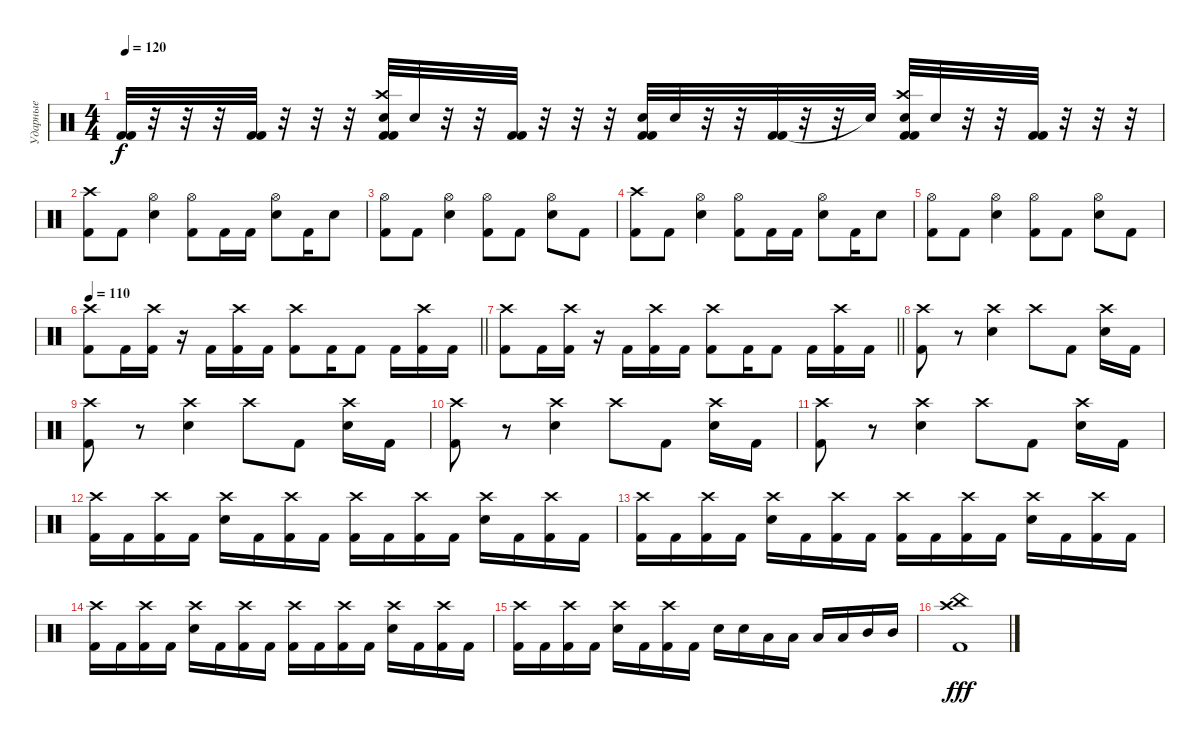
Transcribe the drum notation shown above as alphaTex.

\track ("Ударные" "Ударные") {instrument percussion}
\staff {score}
\articulation defaults
\ts (4 4)
\tempo 120
\clef neutral
\ks c
("Kick (hit) 2" "Kick (hit) 2").32{dy f} r.32 r.32 r.32 ("Kick (hit) 2" "Kick (hit) 2").32 r.32 r.32 r.32 ("Crash high (hit)" "Snare (hit) 2" "Kick (hit) 2" "Kick (hit) 2").32 "Snare (hit) 2".32 r.32 r.32 ("Kick (hit) 2" "Kick (hit) 2").32 r.32 r.32 r.32 ("Snare (hit) 2" "Kick (hit) 2" "Kick (hit) 2").32 "Snare (hit) 2".32 r.32 r.32 ("Kick (hit) 2" "Kick (hit) 2").32 r.32 r.32 "Snare (hit)"{t}.32 ("Crash high (hit)" "Snare (hit) 2" "Kick (hit) 2" "Kick (hit) 2").32 "Snare (hit) 2".32 r.32 r.32 ("Kick (hit) 2" "Kick (hit) 2").32 r.32 r.32 r.32 |
("Crash high (hit)" "Kick (hit) 2").8 "Kick (hit) 2".8 ("Hi-Hat (open)" "Electric Snare (hit)").4 ("Hi-Hat (open)" "Kick (hit) 2").8 "Kick (hit) 2".16 "Kick (hit) 2".16 ("Hi-Hat (open)" "Electric Snare (hit)").8 "Kick (hit) 2".16 "Electric Snare (hit)".8 |
("Hi-Hat (open)" "Kick (hit) 2").8 "Kick (hit) 2".8 ("Hi-Hat (open)" "Electric Snare (hit)").4 ("Hi-Hat (open)" "Kick (hit) 2").8 "Kick (hit) 2".8 ("Hi-Hat (open)" "Electric Snare (hit)").8 "Kick (hit) 2".8 |
("Crash high (hit)" "Kick (hit) 2").8 "Kick (hit) 2".8 ("Hi-Hat (open)" "Electric Snare (hit)").4 ("Hi-Hat (open)" "Kick (hit) 2").8 "Kick (hit) 2".16 "Kick (hit) 2".16 ("Hi-Hat (open)" "Electric Snare (hit)").8 "Kick (hit) 2".16 "Electric Snare (hit)".8 |
("Hi-Hat (open)" "Kick (hit) 2").8 "Kick (hit) 2".8 ("Hi-Hat (open)" "Electric Snare (hit)").4 ("Hi-Hat (open)" "Kick (hit) 2").8 "Kick (hit) 2".8 ("Hi-Hat (open)" "Electric Snare (hit)").8 "Kick (hit) 2".8 |
\tempo 110
\barLineRight lightlight
("Kick (hit) 2" "Crash high (hit)").8 "Kick (hit) 2".16 ("Kick (hit) 2" "Crash high (hit)").16 r.16 "Kick (hit) 2".16 ("Kick (hit) 2" "Crash high (hit)").16 "Kick (hit) 2".16 ("Kick (hit) 2" "Crash high (hit)").8 "Kick (hit) 2".16 "Kick (hit) 2".8 "Kick (hit) 2".16 ("Kick (hit) 2" "Crash high (hit)").16 "Kick (hit) 2".16 |
\barLineRight lightlight
("Kick (hit) 2" "Crash high (hit)").8 "Kick (hit) 2".16 ("Kick (hit) 2" "Crash high (hit)").16 r.16 "Kick (hit) 2".16 ("Kick (hit) 2" "Crash high (hit)").16 "Kick (hit) 2".16 ("Kick (hit) 2" "Crash high (hit)").8 "Kick (hit) 2".16 "Kick (hit) 2".8 "Kick (hit) 2".16 ("Kick (hit) 2" "Crash high (hit)").16 "Kick (hit) 2".16 |
("Crash high (hit)" "Kick (hit) 2").8 r.8 ("Crash high (hit)" "Electric Snare (hit)").4 "Crash high (hit)".8 "Kick (hit) 2".8 ("Crash high (hit)" "Electric Snare (hit)").16 "Kick (hit) 2".16 |
("Crash high (hit)" "Kick (hit) 2").8 r.8 ("Crash high (hit)" "Electric Snare (hit)").4 "Crash high (hit)".8 "Kick (hit) 2".8 ("Crash high (hit)" "Electric Snare (hit)").16 "Kick (hit) 2".16 |
("Crash high (hit)" "Kick (hit) 2").8 r.8 ("Crash high (hit)" "Electric Snare (hit)").4 "Crash high (hit)".8 "Kick (hit) 2".8 ("Crash high (hit)" "Electric Snare (hit)").16 "Kick (hit) 2".16 |
("Crash high (hit)" "Kick (hit) 2").8 r.8 ("Crash high (hit)" "Electric Snare (hit)").4 "Crash high (hit)".8 "Kick (hit) 2".8 ("Crash high (hit)" "Electric Snare (hit)").16 "Kick (hit) 2".16 |
("Crash high (hit)" "Kick (hit) 2").16 "Kick (hit) 2".16 ("Crash high (hit)" "Kick (hit) 2").16 "Kick (hit) 2".16 ("Crash high (hit)" "Electric Snare (hit)").16 "Kick (hit) 2".16 ("Crash high (hit)" "Kick (hit) 2").16 "Kick (hit) 2".16 ("Crash high (hit)" "Kick (hit) 2").16 "Kick (hit) 2".16 ("Crash high (hit)" "Kick (hit) 2").16 "Kick (hit) 2".16 ("Crash high (hit)" "Electric Snare (hit)").16 "Kick (hit) 2".16 ("Crash high (hit)" "Kick (hit) 2").16 "Kick (hit) 2".16 |
("Crash high (hit)" "Kick (hit) 2").16 "Kick (hit) 2".16 ("Crash high (hit)" "Kick (hit) 2").16 "Kick (hit) 2".16 ("Crash high (hit)" "Electric Snare (hit)").16 "Kick (hit) 2".16 ("Crash high (hit)" "Kick (hit) 2").16 "Kick (hit) 2".16 ("Crash high (hit)" "Kick (hit) 2").16 "Kick (hit) 2".16 ("Crash high (hit)" "Kick (hit) 2").16 "Kick (hit) 2".16 ("Crash high (hit)" "Electric Snare (hit)").16 "Kick (hit) 2".16 ("Crash high (hit)" "Kick (hit) 2").16 "Kick (hit) 2".16 |
("Crash high (hit)" "Kick (hit) 2").16 "Kick (hit) 2".16 ("Crash high (hit)" "Kick (hit) 2").16 "Kick (hit) 2".16 ("Crash high (hit)" "Electric Snare (hit)").16 "Kick (hit) 2".16 ("Crash high (hit)" "Kick (hit) 2").16 "Kick (hit) 2".16 ("Crash high (hit)" "Kick (hit) 2").16 "Kick (hit) 2".16 ("Crash high (hit)" "Kick (hit) 2").16 "Kick (hit) 2".16 ("Crash high (hit)" "Electric Snare (hit)").16 "Kick (hit) 2".16 ("Crash high (hit)" "Kick (hit) 2").16 "Kick (hit) 2".16 |
("Crash high (hit)" "Kick (hit) 2").16 "Kick (hit) 2".16 ("Crash high (hit)" "Kick (hit) 2").16 "Kick (hit) 2".16 ("Crash high (hit)" "Electric Snare (hit)").16 "Kick (hit) 2".16 ("Crash high (hit)" "Kick (hit) 2").16 "Kick (hit) 2".16 "Electric Snare (hit)".16 "Electric Snare (hit)".16 "Low Floor Tom (hit)".16 "Low Floor Tom (hit)".16 "Low Tom (hit)".16 "Low Tom (hit)".16 "Mid Tom (hit)".16 "Mid Tom (hit)".16 |
("Kick (hit) 2" "Crash high (hit)" "China (hit)").1{dy fff}
